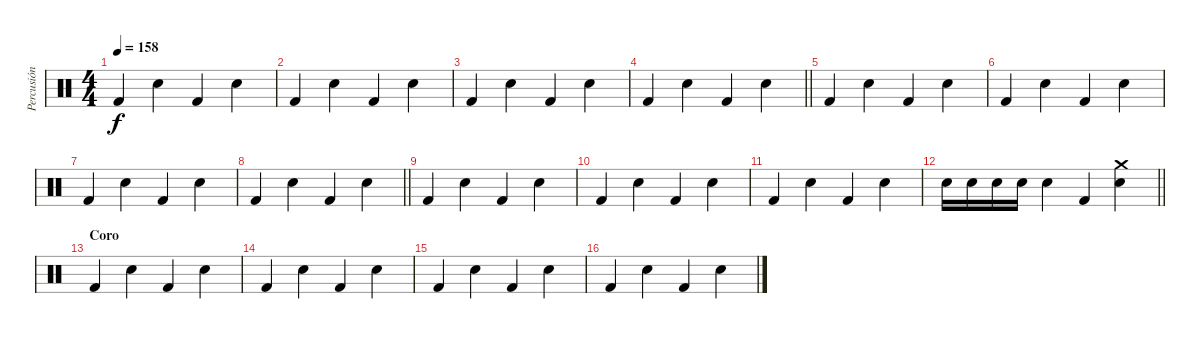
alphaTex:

\track ("Percusión" "Percusión") {instrument percussion}
\staff {score}
\articulation defaults
\ts (4 4)
\tempo 158
\clef neutral
\ks c "Kick (hit) 2".4{dy f volume 16} "Electric Snare (hit)".4 "Kick (hit) 2".4 "Electric Snare (hit)".4
|
"Kick (hit) 2".4 "Electric Snare (hit)".4 "Kick (hit) 2".4 "Electric Snare (hit)".4 |
"Kick (hit) 2".4{volume 16} "Electric Snare (hit)".4 "Kick (hit) 2".4 "Electric Snare (hit)".4 |
\barLineRight lightlight "Kick (hit) 2".4 "Electric Snare (hit)".4 "Kick (hit) 2".4 "Electric Snare (hit)".4
|
"Kick (hit) 2".4{volume 16} "Electric Snare (hit)".4 "Kick (hit) 2".4 "Electric Snare (hit)".4 |
"Kick (hit) 2".4 "Electric Snare (hit)".4 "Kick (hit) 2".4 "Electric Snare (hit)".4 |
"Kick (hit) 2".4{volume 16} "Electric Snare (hit)".4 "Kick (hit) 2".4 "Electric Snare (hit)".4 |
\barLineRight lightlight "Kick (hit) 2".4 "Electric Snare (hit)".4 "Kick (hit) 2".4 "Electric Snare (hit)".4
|
"Kick (hit) 2".4{volume 16} "Electric Snare (hit)".4 "Kick (hit) 2".4 "Electric Snare (hit)".4 |
"Kick (hit) 2".4 "Electric Snare (hit)".4 "Kick (hit) 2".4 "Electric Snare (hit)".4 |
"Kick (hit) 2".4{volume 16} "Electric Snare (hit)".4 "Kick (hit) 2".4 "Electric Snare (hit)".4 |
\barLineRight lightlight "Electric Snare (hit)".16 "Electric Snare (hit)".16 "Electric Snare (hit)".16 "Electric Snare (hit)".16 "Electric Snare (hit)".4 "Kick (hit) 2".4
("Crash medium (hit)" "Electric Snare (hit)").4 |
\section ("" "Coro")
"Kick (hit) 2".4{volume 16} "Electric Snare (hit)".4 "Kick (hit) 2".4 "Electric Snare (hit)".4 |
"Kick (hit) 2".4 "Electric Snare (hit)".4 "Kick (hit) 2".4 "Electric Snare (hit)".4 |
"Kick (hit) 2".4{volume 16} "Electric Snare (hit)".4 "Kick (hit) 2".4 "Electric Snare (hit)".4 |
"Kick (hit) 2".4 "Electric Snare (hit)".4 "Kick (hit) 2".4 "Electric Snare (hit)".4
